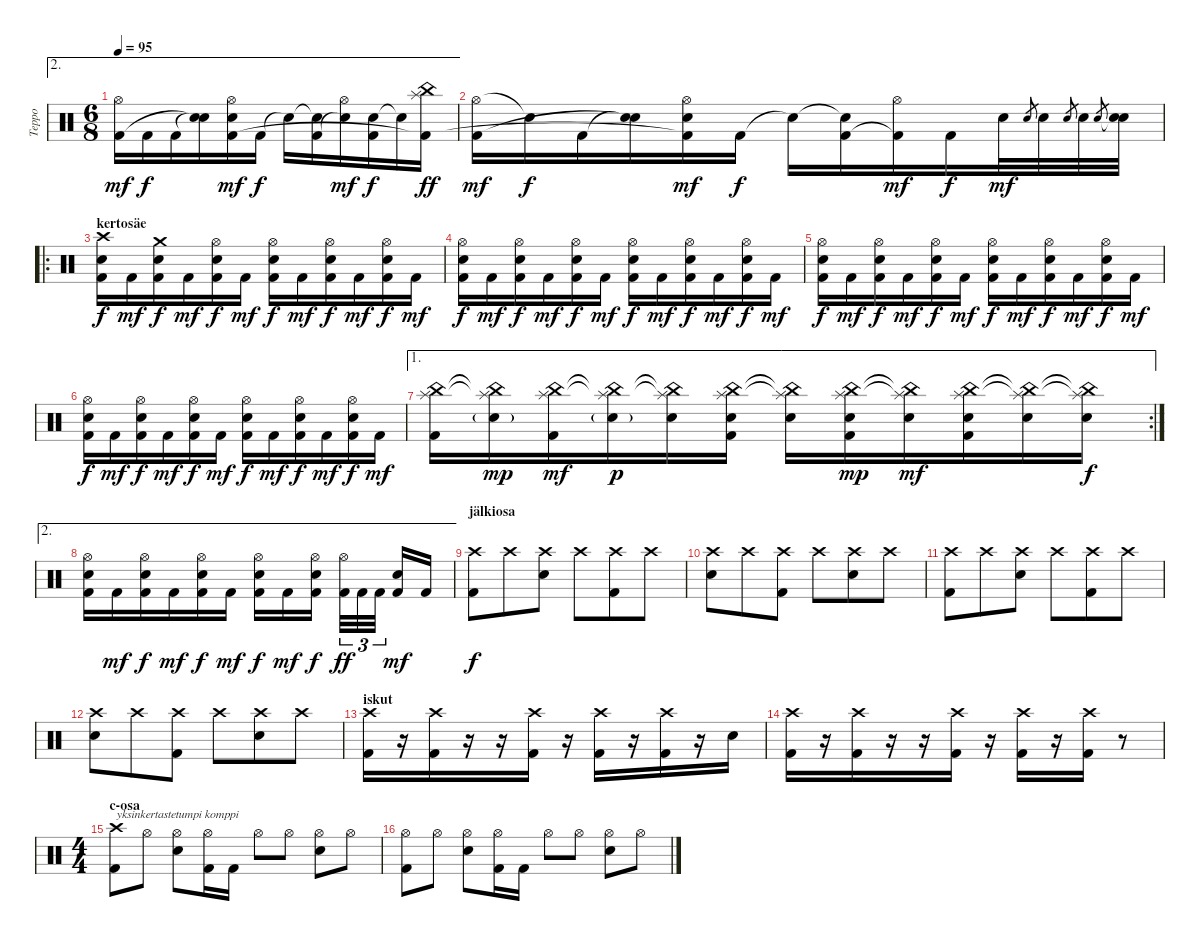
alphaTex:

\track ("Teppo" "Teppo") {instrument percussion}
\staff {score}
\articulation defaults
\ae 2
\ts (6 8)
\tempo 95
\clef neutral
\ks c
("Hi-Hat (open)" "Kick (hit) 2").16{dy mf} "Kick (hit) 2".16{dy f} "Kick (hit) 2".16 ("Snare (hit)"{t} "Snare (hit)"{t}).16 ("Hi-Hat (open)" "Electric Snare (hit)" "Kick (hit) 2"{t}).16{dy mf} "Kick (hit) 2".16{dy f} "Snare (hit)"{t}.16 ("Snare (hit)"{t} "Kick (hit) 2").16 ("Hi-Hat (open)" "Snare (hit)"{t}).16{dy mf} ("Electric Snare (hit)" "Kick (hit) 2").16{dy f} "Snare (hit)"{t}.16 ("China (hit)" "Splash (hit)" "Kick (hit) 2"{t}).16{dy ff} |
("Hi-Hat (open)" "Kick (hit) 2").16{dy mf} "Snare (hit)"{t}.16{dy f} "Kick (hit) 2".16 ("Snare (hit)"{t} "Snare (hit)"{t}).16 ("Hi-Hat (open)" "Electric Snare (hit)" "Kick (hit) 2"{t}).16{dy mf} "Kick (hit) 2".16{dy f} "Snare (hit)"{t}.16 ("Snare (hit)"{t} "Kick (hit) 2").16 ("Hi-Hat (open)" "Kick (hit) 2"{t}).16{dy mf} "Kick (hit) 2".16{dy f} "Electric Snare (hit)".32{dy mf} "Electric Snare (hit)".8{gr} "Electric Snare (hit)".32 "Electric Snare (hit)".8{gr} "Electric Snare (hit)".32 "Electric Snare (hit)".8{gr} ("Snare (hit)"{t} "Electric Snare (hit)").32 |
\ro
\section ("" "kertosäe")
("Crash high (hit)" "Electric Snare (hit)" "Kick (hit) 2").16{dy f} "Kick (hit) 2".16{dy mf} ("Crash medium (hit)" "Electric Snare (hit)" "Kick (hit) 2").16{dy f} "Kick (hit) 2".16{dy mf} ("Hi-Hat (open)" "Electric Snare (hit)" "Kick (hit) 2").16{dy f} "Kick (hit) 2".16{dy mf} ("Hi-Hat (open)" "Electric Snare (hit)" "Kick (hit) 2").16{dy f} "Kick (hit) 2".16{dy mf} ("Hi-Hat (open)" "Electric Snare (hit)" "Kick (hit) 2").16{dy f} "Kick (hit) 2".16{dy mf} ("Hi-Hat (open)" "Electric Snare (hit)" "Kick (hit) 2").16{dy f} "Kick (hit) 2".16{dy mf} |
("Hi-Hat (open)" "Electric Snare (hit)" "Kick (hit) 2").16{dy f} "Kick (hit) 2".16{dy mf} ("Hi-Hat (open)" "Electric Snare (hit)" "Kick (hit) 2").16{dy f} "Kick (hit) 2".16{dy mf} ("Hi-Hat (open)" "Electric Snare (hit)" "Kick (hit) 2").16{dy f} "Kick (hit) 2".16{dy mf} ("Hi-Hat (open)" "Electric Snare (hit)" "Kick (hit) 2").16{dy f} "Kick (hit) 2".16{dy mf} ("Hi-Hat (open)" "Electric Snare (hit)" "Kick (hit) 2").16{dy f} "Kick (hit) 2".16{dy mf} ("Hi-Hat (open)" "Electric Snare (hit)" "Kick (hit) 2").16{dy f} "Kick (hit) 2".16{dy mf} |
("Hi-Hat (open)" "Electric Snare (hit)" "Kick (hit) 2").16{dy f} "Kick (hit) 2".16{dy mf} ("Hi-Hat (open)" "Electric Snare (hit)" "Kick (hit) 2").16{dy f} "Kick (hit) 2".16{dy mf} ("Hi-Hat (open)" "Electric Snare (hit)" "Kick (hit) 2").16{dy f} "Kick (hit) 2".16{dy mf} ("Hi-Hat (open)" "Electric Snare (hit)" "Kick (hit) 2").16{dy f} "Kick (hit) 2".16{dy mf} ("Hi-Hat (open)" "Electric Snare (hit)" "Kick (hit) 2").16{dy f} "Kick (hit) 2".16{dy mf} ("Hi-Hat (open)" "Electric Snare (hit)" "Kick (hit) 2").16{dy f} "Kick (hit) 2".16{dy mf} |
("Hi-Hat (open)" "Electric Snare (hit)" "Kick (hit) 2").16{dy f} "Kick (hit) 2".16{dy mf} ("Hi-Hat (open)" "Electric Snare (hit)" "Kick (hit) 2").16{dy f} "Kick (hit) 2".16{dy mf} ("Hi-Hat (open)" "Electric Snare (hit)" "Kick (hit) 2").16{dy f} "Kick (hit) 2".16{dy mf} ("Hi-Hat (open)" "Electric Snare (hit)" "Kick (hit) 2").16{dy f} "Kick (hit) 2".16{dy mf} ("Hi-Hat (open)" "Electric Snare (hit)" "Kick (hit) 2").16{dy f} "Kick (hit) 2".16{dy mf} ("Hi-Hat (open)" "Electric Snare (hit)" "Kick (hit) 2").16{dy f} "Kick (hit) 2".16{dy mf} |
\ae 1
\rc 2
("China (hit)" "Splash (hit)" "Kick (hit) 2").16 ("China (hit)"{t} "Splash (hit)"{t} "Electric Snare (hit)"{g}).16{dy mp} ("China (hit)" "Splash (hit)" "Kick (hit) 2").16{dy mf} ("China (hit)"{t} "Splash (hit)"{t} "Electric Snare (hit)"{g}).16{dy p} ("China (hit)"{t} "Splash (hit)"{t} "Electric Snare (hit)").16 ("China (hit)" "Splash (hit)" "Electric Snare (hit)" "Kick (hit) 2").16 ("China (hit)"{t} "Splash (hit)"{t} "Electric Snare (hit)").16 ("China (hit)" "Splash (hit)" "Electric Snare (hit)" "Kick (hit) 2").16{dy mp} ("China (hit)"{t} "Splash (hit)"{t} "Electric Snare (hit)").16{dy mf} ("China (hit)" "Splash (hit)" "Electric Snare (hit)" "Kick (hit) 2").16 ("China (hit)"{t} "Splash (hit)"{t} "Electric Snare (hit)").16 ("China (hit)"{t} "Splash (hit)"{t} "Electric Snare (hit)").16{dy f} |
\ae 2
("Hi-Hat (open)" "Electric Snare (hit)" "Kick (hit) 2").16 "Kick (hit) 2".16{dy mf} ("Hi-Hat (open)" "Electric Snare (hit)" "Kick (hit) 2").16{dy f} "Kick (hit) 2".16{dy mf} ("Hi-Hat (open)" "Electric Snare (hit)" "Kick (hit) 2").16{dy f} "Kick (hit) 2".16{dy mf} ("Hi-Hat (open)" "Electric Snare (hit)" "Kick (hit) 2").16{dy f} "Kick (hit) 2".16{dy mf} ("Hi-Hat (open)" "Electric Snare (hit)" "Kick (hit) 2").16{dy f} ("Hi-Hat (open)" "Kick (hit) 2").32{tu (3 2) dy ff} "Kick (hit) 2".32{tu (3 2)} "Kick (hit) 2".32{tu (3 2)} ("Electric Snare (hit)" "Kick (hit) 2").16{dy mf} "Kick (hit) 2".16 |
\section ("" "jälkiosa")
("Crash high (hit)" "Kick (hit) 2").8{dy f} "Crash high (hit)".8 ("Crash high (hit)" "Electric Snare (hit)").8 "Crash high (hit)".8 ("Crash high (hit)" "Kick (hit) 2").8 "Crash high (hit)".8 |
("Crash high (hit)" "Electric Snare (hit)").8 "Crash high (hit)".8 ("Crash high (hit)" "Kick (hit) 2").8 "Crash high (hit)".8 ("Crash high (hit)" "Electric Snare (hit)").8 "Crash high (hit)".8 |
("Crash high (hit)" "Kick (hit) 2").8 "Crash high (hit)".8 ("Crash high (hit)" "Electric Snare (hit)").8 "Crash high (hit)".8 ("Crash high (hit)" "Kick (hit) 2").8 "Crash high (hit)".8 |
("Crash high (hit)" "Electric Snare (hit)").8 "Crash high (hit)".8 ("Crash high (hit)" "Kick (hit) 2").8 "Crash high (hit)".8 ("Crash high (hit)" "Electric Snare (hit)").8 "Crash high (hit)".8 |
\section ("" "iskut")
("Crash high (hit)"{pm} "Kick (hit) 2").16 r.16 ("Crash high (hit)"{pm} "Kick (hit) 2").16 r.16 r.16 ("Crash high (hit)"{pm} "Kick (hit) 2").16 r.16 ("Crash high (hit)"{pm} "Kick (hit) 2").16 r.16 ("Crash high (hit)"{pm} "Kick (hit) 2").16 r.16 "Electric Snare (hit)".16 |
("Crash high (hit)"{pm} "Kick (hit) 2").16 r.16 ("Crash high (hit)"{pm} "Kick (hit) 2").16 r.16 r.16 ("Crash high (hit)"{pm} "Kick (hit) 2").16 r.16 ("Crash high (hit)"{pm} "Kick (hit) 2").16 r.16 ("Crash high (hit)"{pm} "Kick (hit) 2").16 r.8 |
\ts (4 4)
\section ("" "c-osa")
("Crash high (hit)" "Kick (hit) 2").8{txt "yksinkertastetumpi komppi"} "Hi-Hat (open)".8 ("Hi-Hat (open)" "Electric Snare (hit)").8 ("Hi-Hat (open)" "Kick (hit) 2").16 "Kick (hit) 2".16 "Hi-Hat (open)".8 "Hi-Hat (open)".8 ("Hi-Hat (open)" "Electric Snare (hit)").8 "Hi-Hat (open)".8 |
("Hi-Hat (open)" "Kick (hit) 2").8 "Hi-Hat (open)".8 ("Hi-Hat (open)" "Electric Snare (hit)").8 ("Hi-Hat (open)" "Kick (hit) 2").16 "Kick (hit) 2".16 "Hi-Hat (open)".8 "Hi-Hat (open)".8 ("Hi-Hat (open)" "Electric Snare (hit)").8 "Hi-Hat (open)".8
